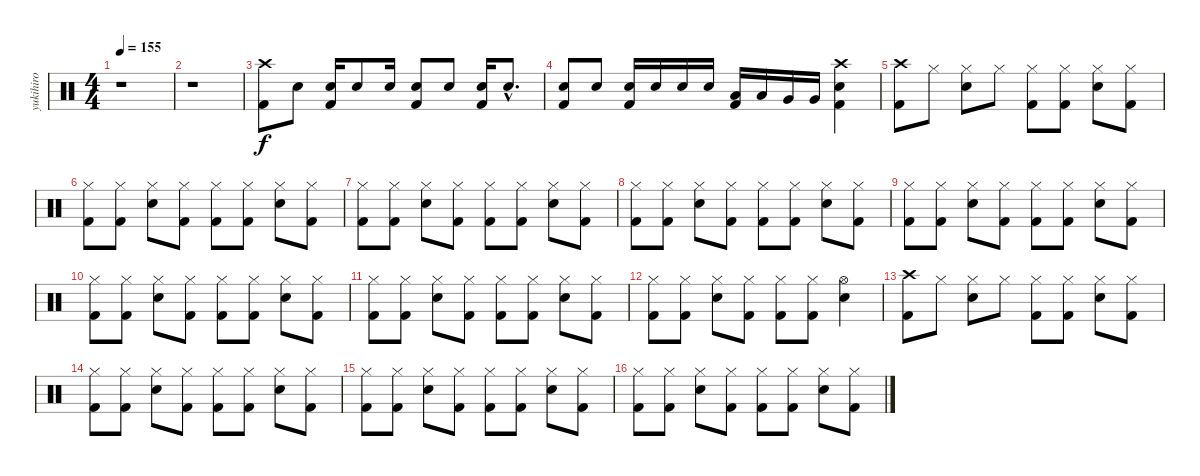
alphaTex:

\track ("yukihiro" "yukihiro") {instrument percussion}
\staff {score}
\articulation defaults
\ts (4 4)
\tempo 155
\clef neutral
\ks c
r.1{dy f} |
r.1 |
("Crash high (hit)" "Kick (hit) 2").8 "Snare (hit) 2".8 ("Snare (hit) 2" "Kick (hit) 2").16 "Snare (hit) 2".8 "Snare (hit) 2".16 ("Snare (hit) 2" "Kick (hit) 2").8 "Snare (hit) 2".8 ("Snare (hit) 2" "Kick (hit) 2").16 "Snare (hit) 2"{hac}.8{d} |
("Snare (hit) 2" "Kick (hit) 2").8 "Snare (hit) 2".8 ("Snare (hit) 2" "Kick (hit) 2").16 "Snare (hit) 2".16 "Snare (hit) 2".16 "Snare (hit) 2".16 ("Low Tom (hit)" "Kick (hit) 2").16 "Low Floor Tom (hit)".16 "Very Low Tom (hit)".16 "Very Low Tom (hit)".16 ("Crash high (hit)" "Snare (hit) 2" "Kick (hit) 2").4 |
("Crash high (hit)" "Kick (hit) 2").8 "Hi-Hat (closed)".8 ("Hi-Hat (closed)" "Snare (hit) 2").8 "Hi-Hat (closed)".8 ("Hi-Hat (closed)" "Kick (hit) 2").8 ("Hi-Hat (closed)" "Kick (hit) 2").8 ("Hi-Hat (closed)" "Snare (hit) 2").8 ("Hi-Hat (closed)" "Kick (hit) 2").8 |
("Hi-Hat (closed)" "Kick (hit) 2").8 ("Hi-Hat (closed)" "Kick (hit) 2").8 ("Hi-Hat (closed)" "Snare (hit) 2").8 ("Hi-Hat (closed)" "Kick (hit) 2").8 ("Hi-Hat (closed)" "Kick (hit) 2").8 ("Hi-Hat (closed)" "Kick (hit) 2").8 ("Hi-Hat (closed)" "Snare (hit) 2").8 ("Hi-Hat (closed)" "Kick (hit) 2").8 |
("Hi-Hat (closed)" "Kick (hit) 2").8 ("Hi-Hat (closed)" "Kick (hit) 2").8 ("Hi-Hat (closed)" "Snare (hit) 2").8 ("Hi-Hat (closed)" "Kick (hit) 2").8 ("Hi-Hat (closed)" "Kick (hit) 2").8 ("Hi-Hat (closed)" "Kick (hit) 2").8 ("Hi-Hat (closed)" "Snare (hit) 2").8 ("Hi-Hat (closed)" "Kick (hit) 2").8 |
("Hi-Hat (closed)" "Kick (hit) 2").8 ("Hi-Hat (closed)" "Kick (hit) 2").8 ("Hi-Hat (closed)" "Snare (hit) 2").8 ("Hi-Hat (closed)" "Kick (hit) 2").8 ("Hi-Hat (closed)" "Kick (hit) 2").8 ("Hi-Hat (closed)" "Kick (hit) 2").8 ("Hi-Hat (closed)" "Snare (hit) 2").8 ("Hi-Hat (closed)" "Kick (hit) 2").8 |
("Hi-Hat (closed)" "Kick (hit) 2").8 ("Hi-Hat (closed)" "Kick (hit) 2").8 ("Hi-Hat (closed)" "Snare (hit) 2").8 ("Hi-Hat (closed)" "Kick (hit) 2").8 ("Hi-Hat (closed)" "Kick (hit) 2").8 ("Hi-Hat (closed)" "Kick (hit) 2").8 ("Hi-Hat (closed)" "Snare (hit) 2").8 ("Hi-Hat (closed)" "Kick (hit) 2").8 |
("Hi-Hat (closed)" "Kick (hit) 2").8 ("Hi-Hat (closed)" "Kick (hit) 2").8 ("Hi-Hat (closed)" "Snare (hit) 2").8 ("Hi-Hat (closed)" "Kick (hit) 2").8 ("Hi-Hat (closed)" "Kick (hit) 2").8 ("Hi-Hat (closed)" "Kick (hit) 2").8 ("Hi-Hat (closed)" "Snare (hit) 2").8 ("Hi-Hat (closed)" "Kick (hit) 2").8 |
("Hi-Hat (closed)" "Kick (hit) 2").8 ("Hi-Hat (closed)" "Kick (hit) 2").8 ("Hi-Hat (closed)" "Snare (hit) 2").8 ("Hi-Hat (closed)" "Kick (hit) 2").8 ("Hi-Hat (closed)" "Kick (hit) 2").8 ("Hi-Hat (closed)" "Kick (hit) 2").8 ("Hi-Hat (closed)" "Snare (hit) 2").8 ("Hi-Hat (closed)" "Kick (hit) 2").8 |
("Hi-Hat (closed)" "Kick (hit) 2").8 ("Hi-Hat (closed)" "Kick (hit) 2").8 ("Hi-Hat (closed)" "Snare (hit) 2").8 ("Hi-Hat (closed)" "Kick (hit) 2").8 ("Hi-Hat (closed)" "Kick (hit) 2").8 ("Hi-Hat (closed)" "Kick (hit) 2").8 ("Hi-Hat (open)" "Snare (hit) 2").4 |
("Crash high (hit)" "Kick (hit) 2").8 "Hi-Hat (closed)".8 ("Hi-Hat (closed)" "Snare (hit) 2").8 "Hi-Hat (closed)".8 ("Hi-Hat (closed)" "Kick (hit) 2").8 ("Hi-Hat (closed)" "Kick (hit) 2").8 ("Hi-Hat (closed)" "Snare (hit) 2").8 ("Hi-Hat (closed)" "Kick (hit) 2").8 |
("Hi-Hat (closed)" "Kick (hit) 2").8 ("Hi-Hat (closed)" "Kick (hit) 2").8 ("Hi-Hat (closed)" "Snare (hit) 2").8 ("Hi-Hat (closed)" "Kick (hit) 2").8 ("Hi-Hat (closed)" "Kick (hit) 2").8 ("Hi-Hat (closed)" "Kick (hit) 2").8 ("Hi-Hat (closed)" "Snare (hit) 2").8 ("Hi-Hat (closed)" "Kick (hit) 2").8 |
("Hi-Hat (closed)" "Kick (hit) 2").8 ("Hi-Hat (closed)" "Kick (hit) 2").8 ("Hi-Hat (closed)" "Snare (hit) 2").8 ("Hi-Hat (closed)" "Kick (hit) 2").8 ("Hi-Hat (closed)" "Kick (hit) 2").8 ("Hi-Hat (closed)" "Kick (hit) 2").8 ("Hi-Hat (closed)" "Snare (hit) 2").8 ("Hi-Hat (closed)" "Kick (hit) 2").8 |
("Hi-Hat (closed)" "Kick (hit) 2").8 ("Hi-Hat (closed)" "Kick (hit) 2").8 ("Hi-Hat (closed)" "Snare (hit) 2").8 ("Hi-Hat (closed)" "Kick (hit) 2").8 ("Hi-Hat (closed)" "Kick (hit) 2").8 ("Hi-Hat (closed)" "Kick (hit) 2").8 ("Hi-Hat (closed)" "Snare (hit) 2").8 ("Hi-Hat (closed)" "Kick (hit) 2").8
